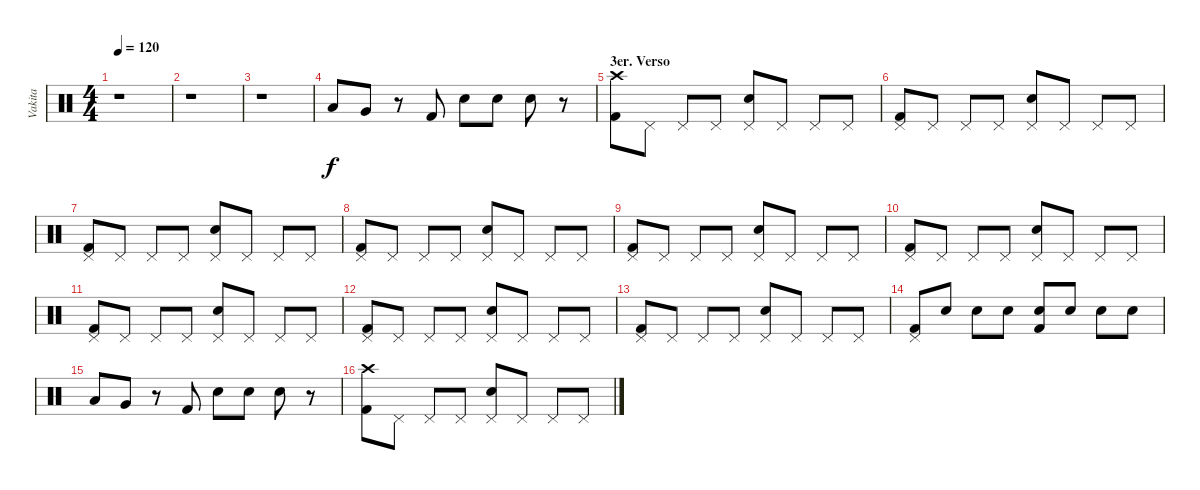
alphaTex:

\track ("Vakita" "Vakita") {instrument percussion}
\staff {score}
\articulation defaults
\ts (4 4)
\tempo 120
\clef neutral
\ks c
r.1{dy f} |
r.1 |
r.1 |
"Low Tom (hit)".8 "Very Low Tom (hit)".8 r.8 "Kick (hit) 2".8 "Snare (hit) 2".8 "Snare (hit) 2".8 "Snare (hit) 2".8 r.8 |
\section ("" "3er. Verso")
("Crash high (hit)" "Kick (hit) 2").8 "Pedal Hi-Hat (hit)".8 "Pedal Hi-Hat (hit)".8 "Pedal Hi-Hat (hit)".8 ("Pedal Hi-Hat (hit)" "Snare (hit) 2").8 "Pedal Hi-Hat (hit)".8 "Pedal Hi-Hat (hit)".8 "Pedal Hi-Hat (hit)".8 |
("Pedal Hi-Hat (hit)" "Kick (hit) 2").8 "Pedal Hi-Hat (hit)".8 "Pedal Hi-Hat (hit)".8 "Pedal Hi-Hat (hit)".8 ("Pedal Hi-Hat (hit)" "Snare (hit) 2").8 "Pedal Hi-Hat (hit)".8 "Pedal Hi-Hat (hit)".8 "Pedal Hi-Hat (hit)".8 |
("Pedal Hi-Hat (hit)" "Kick (hit) 2").8 "Pedal Hi-Hat (hit)".8 "Pedal Hi-Hat (hit)".8 "Pedal Hi-Hat (hit)".8 ("Pedal Hi-Hat (hit)" "Snare (hit) 2").8 "Pedal Hi-Hat (hit)".8 "Pedal Hi-Hat (hit)".8 "Pedal Hi-Hat (hit)".8 |
("Pedal Hi-Hat (hit)" "Kick (hit) 2").8 "Pedal Hi-Hat (hit)".8 "Pedal Hi-Hat (hit)".8 "Pedal Hi-Hat (hit)".8 ("Pedal Hi-Hat (hit)" "Snare (hit) 2").8 "Pedal Hi-Hat (hit)".8 "Pedal Hi-Hat (hit)".8 "Pedal Hi-Hat (hit)".8 |
("Pedal Hi-Hat (hit)" "Kick (hit) 2").8 "Pedal Hi-Hat (hit)".8 "Pedal Hi-Hat (hit)".8 "Pedal Hi-Hat (hit)".8 ("Pedal Hi-Hat (hit)" "Snare (hit) 2").8 "Pedal Hi-Hat (hit)".8 "Pedal Hi-Hat (hit)".8 "Pedal Hi-Hat (hit)".8 |
("Pedal Hi-Hat (hit)" "Kick (hit) 2").8 "Pedal Hi-Hat (hit)".8 "Pedal Hi-Hat (hit)".8 "Pedal Hi-Hat (hit)".8 ("Pedal Hi-Hat (hit)" "Snare (hit) 2").8 "Pedal Hi-Hat (hit)".8 "Pedal Hi-Hat (hit)".8 "Pedal Hi-Hat (hit)".8 |
("Pedal Hi-Hat (hit)" "Kick (hit) 2").8 "Pedal Hi-Hat (hit)".8 "Pedal Hi-Hat (hit)".8 "Pedal Hi-Hat (hit)".8 ("Pedal Hi-Hat (hit)" "Snare (hit) 2").8 "Pedal Hi-Hat (hit)".8 "Pedal Hi-Hat (hit)".8 "Pedal Hi-Hat (hit)".8 |
("Pedal Hi-Hat (hit)" "Kick (hit) 2").8 "Pedal Hi-Hat (hit)".8 "Pedal Hi-Hat (hit)".8 "Pedal Hi-Hat (hit)".8 ("Pedal Hi-Hat (hit)" "Snare (hit) 2").8 "Pedal Hi-Hat (hit)".8 "Pedal Hi-Hat (hit)".8 "Pedal Hi-Hat (hit)".8 |
("Pedal Hi-Hat (hit)" "Kick (hit) 2").8 "Pedal Hi-Hat (hit)".8 "Pedal Hi-Hat (hit)".8 "Pedal Hi-Hat (hit)".8 ("Pedal Hi-Hat (hit)" "Snare (hit) 2").8 "Pedal Hi-Hat (hit)".8 "Pedal Hi-Hat (hit)".8 "Pedal Hi-Hat (hit)".8 |
("Pedal Hi-Hat (hit)" "Kick (hit) 2").8 "Snare (hit) 2".8 "Snare (hit) 2".8 "Snare (hit) 2".8 ("Snare (hit) 2" "Kick (hit) 2").8 "Snare (hit) 2".8 "Snare (hit) 2".8 "Snare (hit) 2".8 |
"Low Tom (hit)".8 "Very Low Tom (hit)".8 r.8 "Kick (hit) 2".8 "Snare (hit) 2".8 "Snare (hit) 2".8 "Snare (hit) 2".8 r.8 |
("Crash high (hit)" "Kick (hit) 2").8 "Pedal Hi-Hat (hit)".8 "Pedal Hi-Hat (hit)".8 "Pedal Hi-Hat (hit)".8 ("Pedal Hi-Hat (hit)" "Snare (hit) 2").8 "Pedal Hi-Hat (hit)".8 "Pedal Hi-Hat (hit)".8 "Pedal Hi-Hat (hit)".8
